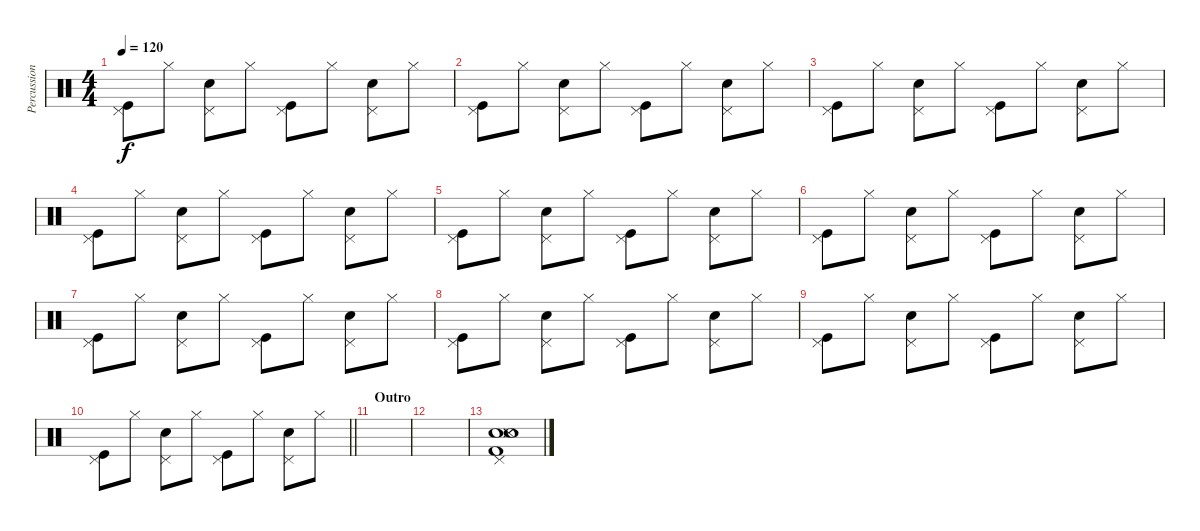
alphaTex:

\track ("Percussion - Ian Astbury" "Percussion") {instrument percussion}
\staff {score}
\articulation defaults
\ts (4 4)
\tempo 120
\clef neutral
\ks c
("Pedal Hi-Hat (hit)" "Kick (hit)").8{dy f} "Hi-Hat (closed)".8 ("Pedal Hi-Hat (hit)" "Electric Snare (hit)").8 "Hi-Hat (closed)".8 ("Pedal Hi-Hat (hit)" "Kick (hit)").8 "Hi-Hat (closed)".8 ("Pedal Hi-Hat (hit)" "Electric Snare (hit)").8 "Hi-Hat (closed)".8 |
("Pedal Hi-Hat (hit)" "Kick (hit)").8 "Hi-Hat (closed)".8 ("Pedal Hi-Hat (hit)" "Electric Snare (hit)").8 "Hi-Hat (closed)".8 ("Pedal Hi-Hat (hit)" "Kick (hit)").8 "Hi-Hat (closed)".8 ("Pedal Hi-Hat (hit)" "Electric Snare (hit)").8 "Hi-Hat (closed)".8 |
("Pedal Hi-Hat (hit)" "Kick (hit)").8 "Hi-Hat (closed)".8 ("Pedal Hi-Hat (hit)" "Electric Snare (hit)").8 "Hi-Hat (closed)".8 ("Pedal Hi-Hat (hit)" "Kick (hit)").8 "Hi-Hat (closed)".8 ("Pedal Hi-Hat (hit)" "Electric Snare (hit)").8 "Hi-Hat (closed)".8 |
("Pedal Hi-Hat (hit)" "Kick (hit)").8 "Hi-Hat (closed)".8 ("Pedal Hi-Hat (hit)" "Electric Snare (hit)").8 "Hi-Hat (closed)".8 ("Pedal Hi-Hat (hit)" "Kick (hit)").8 "Hi-Hat (closed)".8 ("Pedal Hi-Hat (hit)" "Electric Snare (hit)").8 "Hi-Hat (closed)".8 |
("Pedal Hi-Hat (hit)" "Kick (hit)").8 "Hi-Hat (closed)".8 ("Pedal Hi-Hat (hit)" "Electric Snare (hit)").8 "Hi-Hat (closed)".8 ("Pedal Hi-Hat (hit)" "Kick (hit)").8 "Hi-Hat (closed)".8 ("Pedal Hi-Hat (hit)" "Electric Snare (hit)").8 "Hi-Hat (closed)".8 |
("Pedal Hi-Hat (hit)" "Kick (hit)").8 "Hi-Hat (closed)".8 ("Pedal Hi-Hat (hit)" "Electric Snare (hit)").8 "Hi-Hat (closed)".8 ("Pedal Hi-Hat (hit)" "Kick (hit)").8 "Hi-Hat (closed)".8 ("Pedal Hi-Hat (hit)" "Electric Snare (hit)").8 "Hi-Hat (closed)".8 |
("Pedal Hi-Hat (hit)" "Kick (hit)").8 "Hi-Hat (closed)".8 ("Pedal Hi-Hat (hit)" "Electric Snare (hit)").8 "Hi-Hat (closed)".8 ("Pedal Hi-Hat (hit)" "Kick (hit)").8 "Hi-Hat (closed)".8 ("Pedal Hi-Hat (hit)" "Electric Snare (hit)").8 "Hi-Hat (closed)".8 |
("Pedal Hi-Hat (hit)" "Kick (hit)").8 "Hi-Hat (closed)".8 ("Pedal Hi-Hat (hit)" "Electric Snare (hit)").8 "Hi-Hat (closed)".8 ("Pedal Hi-Hat (hit)" "Kick (hit)").8 "Hi-Hat (closed)".8 ("Pedal Hi-Hat (hit)" "Electric Snare (hit)").8 "Hi-Hat (closed)".8 |
("Pedal Hi-Hat (hit)" "Kick (hit)").8 "Hi-Hat (closed)".8 ("Pedal Hi-Hat (hit)" "Electric Snare (hit)").8 "Hi-Hat (closed)".8 ("Pedal Hi-Hat (hit)" "Kick (hit)").8 "Hi-Hat (closed)".8 ("Pedal Hi-Hat (hit)" "Electric Snare (hit)").8 "Hi-Hat (closed)".8 |
\barLineRight lightlight
("Pedal Hi-Hat (hit)" "Kick (hit)").8 "Hi-Hat (closed)".8 ("Pedal Hi-Hat (hit)" "Electric Snare (hit)").8 "Hi-Hat (closed)".8 ("Pedal Hi-Hat (hit)" "Kick (hit)").8 "Hi-Hat (closed)".8 ("Pedal Hi-Hat (hit)" "Electric Snare (hit)").8 "Hi-Hat (closed)".8 |
\section ("" "Outro")
|
|
("Electric Snare (hit)" "Metronome (hit)" "Kick (hit) 2" "Electric Snare (hit)" "Pedal Hi-Hat (hit)" "Metronome (hit)").1
